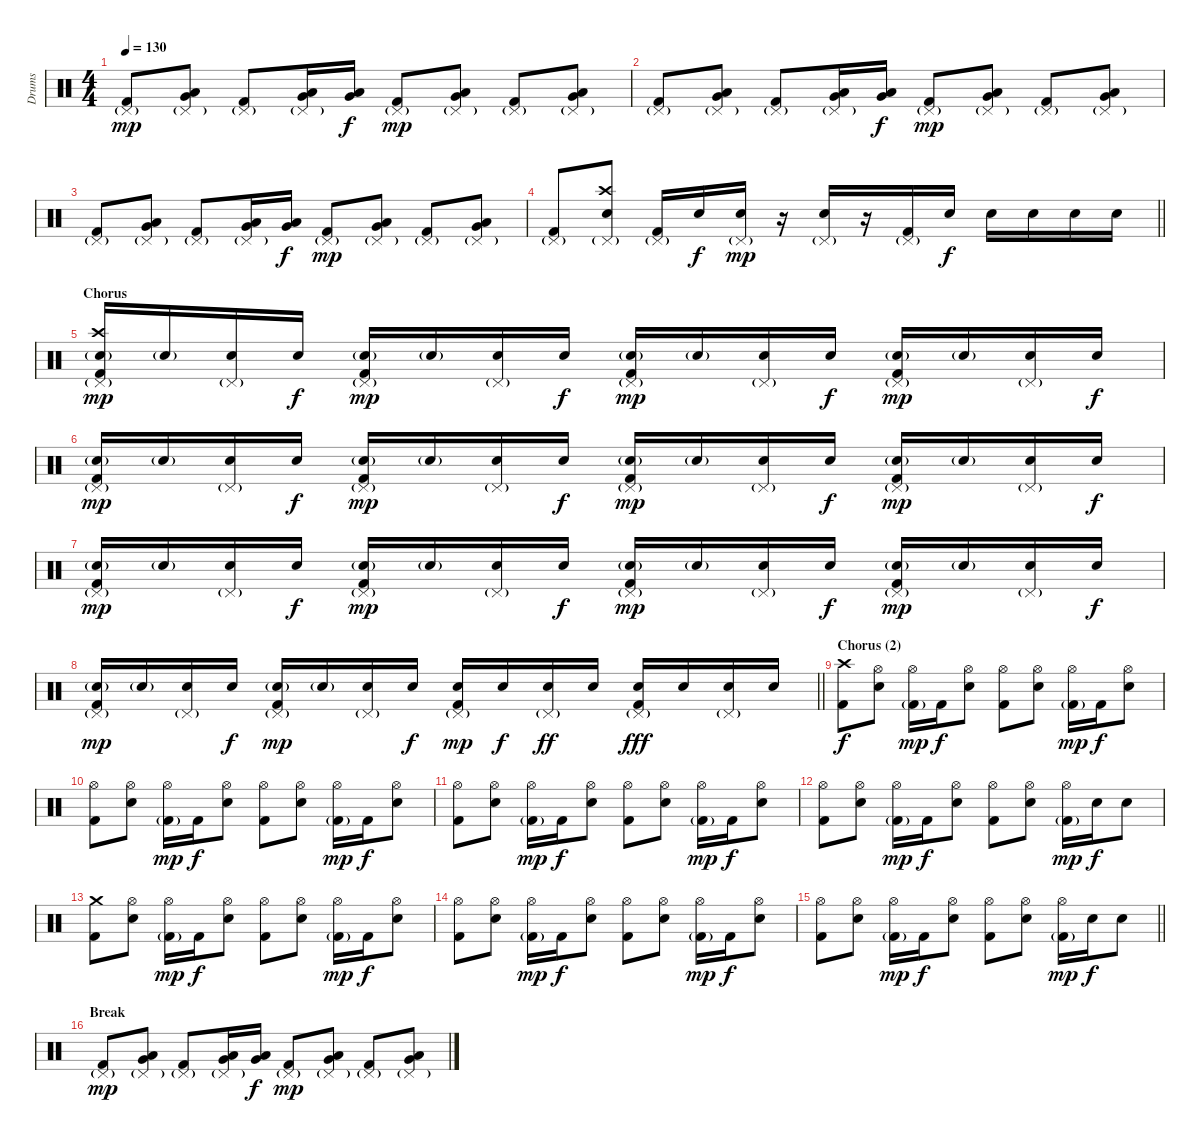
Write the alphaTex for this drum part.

\track ("Drums" "Drums") {instrument percussion}
\staff {score}
\articulation defaults
\ts (4 4)
\tempo 130
\clef neutral
\ks c
("Pedal Hi-Hat (hit)"{g} "Kick (hit) 2").8{dy mp} ("Pedal Hi-Hat (hit)"{g} "Low Tom (hit)" "Very Low Tom (hit)").8 ("Pedal Hi-Hat (hit)"{g} "Kick (hit) 2").8 ("Pedal Hi-Hat (hit)"{g} "Very Low Tom (hit)" "Low Floor Tom (hit)").16 ("Very Low Tom (hit)" "Low Floor Tom (hit)").16{dy f} ("Pedal Hi-Hat (hit)"{g} "Kick (hit) 2").8{dy mp} ("Pedal Hi-Hat (hit)"{g} "Very Low Tom (hit)" "Low Floor Tom (hit)").8 ("Pedal Hi-Hat (hit)"{g} "Kick (hit) 2").8 ("Pedal Hi-Hat (hit)"{g} "Very Low Tom (hit)" "Low Floor Tom (hit)").8 |
("Pedal Hi-Hat (hit)"{g} "Kick (hit) 2").8 ("Pedal Hi-Hat (hit)"{g} "Low Tom (hit)" "Very Low Tom (hit)").8 ("Pedal Hi-Hat (hit)"{g} "Kick (hit) 2").8 ("Pedal Hi-Hat (hit)"{g} "Very Low Tom (hit)" "Low Floor Tom (hit)").16 ("Very Low Tom (hit)" "Low Floor Tom (hit)").16{dy f} ("Pedal Hi-Hat (hit)"{g} "Kick (hit) 2").8{dy mp} ("Pedal Hi-Hat (hit)"{g} "Very Low Tom (hit)" "Low Floor Tom (hit)").8 ("Pedal Hi-Hat (hit)"{g} "Kick (hit) 2").8 ("Pedal Hi-Hat (hit)"{g} "Very Low Tom (hit)" "Low Floor Tom (hit)").8 |
("Pedal Hi-Hat (hit)"{g} "Kick (hit) 2").8 ("Pedal Hi-Hat (hit)"{g} "Low Tom (hit)" "Very Low Tom (hit)").8 ("Pedal Hi-Hat (hit)"{g} "Kick (hit) 2").8 ("Pedal Hi-Hat (hit)"{g} "Very Low Tom (hit)" "Low Floor Tom (hit)").16 ("Very Low Tom (hit)" "Low Floor Tom (hit)").16{dy f} ("Pedal Hi-Hat (hit)"{g} "Kick (hit) 2").8{dy mp} ("Pedal Hi-Hat (hit)"{g} "Very Low Tom (hit)" "Low Floor Tom (hit)").8 ("Pedal Hi-Hat (hit)"{g} "Kick (hit) 2").8 ("Pedal Hi-Hat (hit)"{g} "Very Low Tom (hit)" "Low Floor Tom (hit)").8 |
\barLineRight lightlight
("Pedal Hi-Hat (hit)"{g} "Kick (hit) 2").8 ("Pedal Hi-Hat (hit)"{g} "Crash high (hit)" "Electric Snare (hit)").8 ("Pedal Hi-Hat (hit)"{g} "Kick (hit) 2").16 "Electric Snare (hit)".16{dy f} ("Pedal Hi-Hat (hit)"{g} "Electric Snare (hit)").16{dy mp} r.16 ("Pedal Hi-Hat (hit)"{g} "Electric Snare (hit)").16 r.16 ("Pedal Hi-Hat (hit)"{g} "Kick (hit) 2").16 "Electric Snare (hit)".16{dy f} "Electric Snare (hit)".16 "Electric Snare (hit)".16 "Electric Snare (hit)".16 "Electric Snare (hit)".16 |
\section ("" "Chorus")
("Pedal Hi-Hat (hit)"{g} "Crash high (hit)" "Electric Snare (hit)"{g} "Kick (hit) 2").16{dy mp} "Electric Snare (hit)"{g}.16 ("Pedal Hi-Hat (hit)"{g} "Electric Snare (hit)").16 "Electric Snare (hit)".16{dy f} ("Pedal Hi-Hat (hit)"{g} "Electric Snare (hit)"{g} "Kick (hit) 2").16{dy mp} "Electric Snare (hit)"{g}.16 ("Pedal Hi-Hat (hit)"{g} "Electric Snare (hit)").16 "Electric Snare (hit)".16{dy f} ("Pedal Hi-Hat (hit)"{g} "Electric Snare (hit)"{g} "Kick (hit) 2").16{dy mp} "Electric Snare (hit)"{g}.16 ("Pedal Hi-Hat (hit)"{g} "Electric Snare (hit)").16 "Electric Snare (hit)".16{dy f} ("Pedal Hi-Hat (hit)"{g} "Electric Snare (hit)"{g} "Kick (hit) 2").16{dy mp} "Electric Snare (hit)"{g}.16 ("Pedal Hi-Hat (hit)"{g} "Electric Snare (hit)").16 "Electric Snare (hit)".16{dy f} |
("Pedal Hi-Hat (hit)"{g} "Electric Snare (hit)"{g} "Kick (hit) 2").16{dy mp} "Electric Snare (hit)"{g}.16 ("Pedal Hi-Hat (hit)"{g} "Electric Snare (hit)").16 "Electric Snare (hit)".16{dy f} ("Pedal Hi-Hat (hit)"{g} "Electric Snare (hit)"{g} "Kick (hit) 2").16{dy mp} "Electric Snare (hit)"{g}.16 ("Pedal Hi-Hat (hit)"{g} "Electric Snare (hit)").16 "Electric Snare (hit)".16{dy f} ("Pedal Hi-Hat (hit)"{g} "Electric Snare (hit)"{g} "Kick (hit) 2").16{dy mp} "Electric Snare (hit)"{g}.16 ("Pedal Hi-Hat (hit)"{g} "Electric Snare (hit)").16 "Electric Snare (hit)".16{dy f} ("Pedal Hi-Hat (hit)"{g} "Electric Snare (hit)"{g} "Kick (hit) 2").16{dy mp} "Electric Snare (hit)"{g}.16 ("Pedal Hi-Hat (hit)"{g} "Electric Snare (hit)").16 "Electric Snare (hit)".16{dy f} |
("Pedal Hi-Hat (hit)"{g} "Electric Snare (hit)"{g} "Kick (hit) 2").16{dy mp} "Electric Snare (hit)"{g}.16 ("Pedal Hi-Hat (hit)"{g} "Electric Snare (hit)").16 "Electric Snare (hit)".16{dy f} ("Pedal Hi-Hat (hit)"{g} "Electric Snare (hit)"{g} "Kick (hit) 2").16{dy mp} "Electric Snare (hit)"{g}.16 ("Pedal Hi-Hat (hit)"{g} "Electric Snare (hit)").16 "Electric Snare (hit)".16{dy f} ("Pedal Hi-Hat (hit)"{g} "Electric Snare (hit)"{g} "Kick (hit) 2").16{dy mp} "Electric Snare (hit)"{g}.16 ("Pedal Hi-Hat (hit)"{g} "Electric Snare (hit)").16 "Electric Snare (hit)".16{dy f} ("Pedal Hi-Hat (hit)"{g} "Electric Snare (hit)"{g} "Kick (hit) 2").16{dy mp} "Electric Snare (hit)"{g}.16 ("Pedal Hi-Hat (hit)"{g} "Electric Snare (hit)").16 "Electric Snare (hit)".16{dy f} |
\barLineRight lightlight
("Pedal Hi-Hat (hit)"{g} "Electric Snare (hit)"{g} "Kick (hit) 2").16{dy mp} "Electric Snare (hit)"{g}.16 ("Pedal Hi-Hat (hit)"{g} "Electric Snare (hit)").16 "Electric Snare (hit)".16{dy f} ("Pedal Hi-Hat (hit)"{g} "Electric Snare (hit)"{g} "Kick (hit) 2").16{dy mp} "Electric Snare (hit)"{g}.16 ("Pedal Hi-Hat (hit)"{g} "Electric Snare (hit)").16 "Electric Snare (hit)".16{dy f} ("Pedal Hi-Hat (hit)"{g} "Electric Snare (hit)" "Kick (hit) 2").16{dy mp} "Electric Snare (hit)".16{dy f} ("Pedal Hi-Hat (hit)"{g} "Electric Snare (hit)").16{dy ff} "Electric Snare (hit)".16 ("Pedal Hi-Hat (hit)"{g} "Electric Snare (hit)" "Kick (hit) 2").16{dy fff} "Electric Snare (hit)".16 ("Pedal Hi-Hat (hit)"{g} "Electric Snare (hit)").16 "Electric Snare (hit)".16 |
\section ("" "Chorus (2)")
("Crash high (hit)" "Kick (hit) 2").8{dy f} ("Hi-Hat (open)" "Electric Snare (hit)").8 ("Hi-Hat (open)" "Kick (hit) 2"{g}).16{dy mp} "Kick (hit) 2".16{dy f} ("Hi-Hat (open)" "Electric Snare (hit)").8 ("Hi-Hat (open)" "Kick (hit) 2").8 ("Hi-Hat (open)" "Electric Snare (hit)").8 ("Hi-Hat (open)" "Kick (hit) 2"{g}).16{dy mp} "Kick (hit) 2".16{dy f} ("Hi-Hat (open)" "Electric Snare (hit)").8 |
("Hi-Hat (open)" "Kick (hit) 2").8 ("Hi-Hat (open)" "Electric Snare (hit)").8 ("Hi-Hat (open)" "Kick (hit) 2"{g}).16{dy mp} "Kick (hit) 2".16{dy f} ("Hi-Hat (open)" "Electric Snare (hit)").8 ("Hi-Hat (open)" "Kick (hit) 2").8 ("Hi-Hat (open)" "Electric Snare (hit)").8 ("Hi-Hat (open)" "Kick (hit) 2"{g}).16{dy mp} "Kick (hit) 2".16{dy f} ("Hi-Hat (open)" "Electric Snare (hit)").8 |
("Hi-Hat (open)" "Kick (hit) 2").8 ("Hi-Hat (open)" "Electric Snare (hit)").8 ("Hi-Hat (open)" "Kick (hit) 2"{g}).16{dy mp} "Kick (hit) 2".16{dy f} ("Hi-Hat (open)" "Electric Snare (hit)").8 ("Hi-Hat (open)" "Kick (hit) 2").8 ("Hi-Hat (open)" "Electric Snare (hit)").8 ("Hi-Hat (open)" "Kick (hit) 2"{g}).16{dy mp} "Kick (hit) 2".16{dy f} ("Hi-Hat (open)" "Electric Snare (hit)").8 |
("Hi-Hat (open)" "Kick (hit) 2").8 ("Hi-Hat (open)" "Electric Snare (hit)").8 ("Hi-Hat (open)" "Kick (hit) 2"{g}).16{dy mp} "Kick (hit) 2".16{dy f} ("Hi-Hat (open)" "Electric Snare (hit)").8 ("Hi-Hat (open)" "Kick (hit) 2").8 ("Hi-Hat (open)" "Electric Snare (hit)").8 ("Hi-Hat (open)" "Kick (hit) 2"{g}).16{dy mp} "Electric Snare (hit)".16{dy f} "Electric Snare (hit)".8 |
("Crash medium (hit)" "Kick (hit) 2").8 ("Hi-Hat (open)" "Electric Snare (hit)").8 ("Hi-Hat (open)" "Kick (hit) 2"{g}).16{dy mp} "Kick (hit) 2".16{dy f} ("Hi-Hat (open)" "Electric Snare (hit)").8 ("Hi-Hat (open)" "Kick (hit) 2").8 ("Hi-Hat (open)" "Electric Snare (hit)").8 ("Hi-Hat (open)" "Kick (hit) 2"{g}).16{dy mp} "Kick (hit) 2".16{dy f} ("Hi-Hat (open)" "Electric Snare (hit)").8 |
("Hi-Hat (open)" "Kick (hit) 2").8 ("Hi-Hat (open)" "Electric Snare (hit)").8 ("Hi-Hat (open)" "Kick (hit) 2"{g}).16{dy mp} "Kick (hit) 2".16{dy f} ("Hi-Hat (open)" "Electric Snare (hit)").8 ("Hi-Hat (open)" "Kick (hit) 2").8 ("Hi-Hat (open)" "Electric Snare (hit)").8 ("Hi-Hat (open)" "Kick (hit) 2"{g}).16{dy mp} "Kick (hit) 2".16{dy f} ("Hi-Hat (open)" "Electric Snare (hit)").8 |
\barLineRight lightlight
("Hi-Hat (open)" "Kick (hit) 2").8 ("Hi-Hat (open)" "Electric Snare (hit)").8 ("Hi-Hat (open)" "Kick (hit) 2"{g}).16{dy mp} "Kick (hit) 2".16{dy f} ("Hi-Hat (open)" "Electric Snare (hit)").8 ("Hi-Hat (open)" "Kick (hit) 2").8 ("Hi-Hat (open)" "Electric Snare (hit)").8 ("Hi-Hat (open)" "Kick (hit) 2"{g}).16{dy mp} "Electric Snare (hit)".16{dy f} "Electric Snare (hit)".8 |
\section ("" "Break")
("Pedal Hi-Hat (hit)"{g} "Kick (hit) 2").8{dy mp} ("Pedal Hi-Hat (hit)"{g} "Low Tom (hit)" "Very Low Tom (hit)").8 ("Pedal Hi-Hat (hit)"{g} "Kick (hit) 2").8 ("Pedal Hi-Hat (hit)"{g} "Very Low Tom (hit)" "Low Floor Tom (hit)").16 ("Very Low Tom (hit)" "Low Floor Tom (hit)").16{dy f} ("Pedal Hi-Hat (hit)"{g} "Kick (hit) 2").8{dy mp} ("Pedal Hi-Hat (hit)"{g} "Very Low Tom (hit)" "Low Floor Tom (hit)").8 ("Pedal Hi-Hat (hit)"{g} "Kick (hit) 2").8 ("Pedal Hi-Hat (hit)"{g} "Very Low Tom (hit)" "Low Floor Tom (hit)").8
